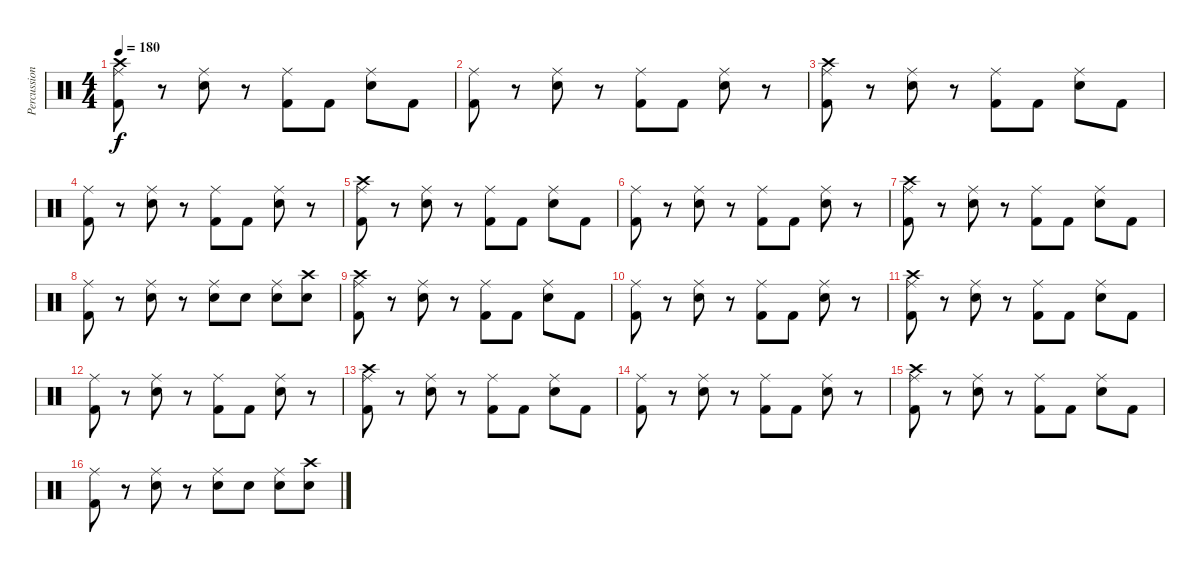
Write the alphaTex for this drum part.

\track ("Percussion" "Percussion") {instrument percussion}
\staff {score}
\articulation defaults
\ts (4 4)
\tempo 180
\clef neutral
\ks c
("Ride (middle)" "Kick (hit) 2" "Crash high (hit)").8{dy f} r.8 ("Ride (middle)" "Snare (hit) 2").8 r.8 ("Ride (middle)" "Kick (hit) 2").8 "Kick (hit) 2".8 ("Ride (middle)" "Snare (hit) 2").8 "Kick (hit) 2".8 |
("Ride (middle)" "Kick (hit) 2").8 r.8 ("Ride (middle)" "Snare (hit) 2").8 r.8 ("Ride (middle)" "Kick (hit) 2").8 "Kick (hit) 2".8 ("Ride (middle)" "Snare (hit) 2").8 r.8 |
("Ride (middle)" "Kick (hit) 2" "Crash high (hit)").8 r.8 ("Ride (middle)" "Snare (hit) 2").8 r.8 ("Ride (middle)" "Kick (hit) 2").8 "Kick (hit) 2".8 ("Ride (middle)" "Snare (hit) 2").8 "Kick (hit) 2".8 |
("Ride (middle)" "Kick (hit) 2").8 r.8 ("Ride (middle)" "Snare (hit) 2").8 r.8 ("Ride (middle)" "Kick (hit) 2").8 "Kick (hit) 2".8 ("Ride (middle)" "Snare (hit) 2").8 r.8 |
("Ride (middle)" "Kick (hit) 2" "Crash high (hit)").8 r.8 ("Ride (middle)" "Snare (hit) 2").8 r.8 ("Ride (middle)" "Kick (hit) 2").8 "Kick (hit) 2".8 ("Ride (middle)" "Snare (hit) 2").8 "Kick (hit) 2".8 |
("Ride (middle)" "Kick (hit) 2").8 r.8 ("Ride (middle)" "Snare (hit) 2").8 r.8 ("Ride (middle)" "Kick (hit) 2").8 "Kick (hit) 2".8 ("Ride (middle)" "Snare (hit) 2").8 r.8 |
("Ride (middle)" "Kick (hit) 2" "Crash high (hit)").8 r.8 ("Ride (middle)" "Snare (hit) 2").8 r.8 ("Ride (middle)" "Kick (hit) 2").8 "Kick (hit) 2".8 ("Ride (middle)" "Snare (hit) 2").8 "Kick (hit) 2".8 |
("Ride (middle)" "Kick (hit) 2").8 r.8 ("Ride (middle)" "Snare (hit) 2").8 r.8 ("Ride (middle)" "Snare (hit) 2").8 "Snare (hit) 2".8 ("Ride (middle)" "Snare (hit) 2").8 ("Crash high (hit)" "Snare (hit) 2").8 |
("Ride (middle)" "Kick (hit) 2" "Crash high (hit)").8 r.8 ("Ride (middle)" "Snare (hit) 2").8 r.8 ("Ride (middle)" "Kick (hit) 2").8 "Kick (hit) 2".8 ("Ride (middle)" "Snare (hit) 2").8 "Kick (hit) 2".8 |
("Ride (middle)" "Kick (hit) 2").8 r.8 ("Ride (middle)" "Snare (hit) 2").8 r.8 ("Ride (middle)" "Kick (hit) 2").8 "Kick (hit) 2".8 ("Ride (middle)" "Snare (hit) 2").8 r.8 |
("Ride (middle)" "Kick (hit) 2" "Crash high (hit)").8 r.8 ("Ride (middle)" "Snare (hit) 2").8 r.8 ("Ride (middle)" "Kick (hit) 2").8 "Kick (hit) 2".8 ("Ride (middle)" "Snare (hit) 2").8 "Kick (hit) 2".8 |
("Ride (middle)" "Kick (hit) 2").8 r.8 ("Ride (middle)" "Snare (hit) 2").8 r.8 ("Ride (middle)" "Kick (hit) 2").8 "Kick (hit) 2".8 ("Ride (middle)" "Snare (hit) 2").8 r.8 |
("Ride (middle)" "Kick (hit) 2" "Crash high (hit)").8 r.8 ("Ride (middle)" "Snare (hit) 2").8 r.8 ("Ride (middle)" "Kick (hit) 2").8 "Kick (hit) 2".8 ("Ride (middle)" "Snare (hit) 2").8 "Kick (hit) 2".8 |
("Ride (middle)" "Kick (hit) 2").8 r.8 ("Ride (middle)" "Snare (hit) 2").8 r.8 ("Ride (middle)" "Kick (hit) 2").8 "Kick (hit) 2".8 ("Ride (middle)" "Snare (hit) 2").8 r.8 |
("Ride (middle)" "Kick (hit) 2" "Crash high (hit)").8 r.8 ("Ride (middle)" "Snare (hit) 2").8 r.8 ("Ride (middle)" "Kick (hit) 2").8 "Kick (hit) 2".8 ("Ride (middle)" "Snare (hit) 2").8 "Kick (hit) 2".8 |
("Ride (middle)" "Kick (hit) 2").8 r.8 ("Ride (middle)" "Snare (hit) 2").8 r.8 ("Ride (middle)" "Snare (hit) 2").8 "Snare (hit) 2".8 ("Ride (middle)" "Snare (hit) 2").8 ("Crash high (hit)" "Snare (hit) 2").8
